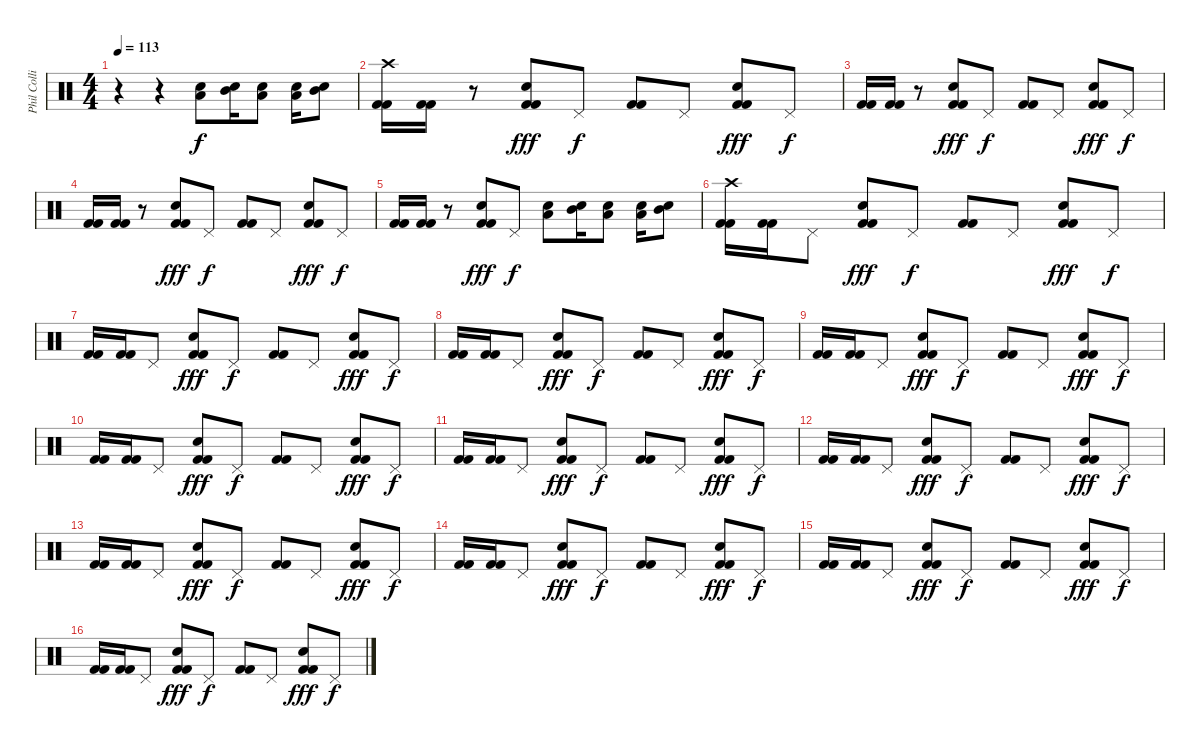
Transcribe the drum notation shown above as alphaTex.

\track ("Phil Collins" "Phil Colli") {instrument percussion}
\staff {score}
\articulation defaults
\ts (4 4)
\tempo 113
\clef neutral
\ks c
r.4{dy f} r.4 ("Electric Snare (hit)" "Low Tom (hit)").8 ("Electric Snare (hit)" "Mid Tom (hit)").16 ("Electric Snare (hit)" "Low Tom (hit)").8 ("Electric Snare (hit)" "Low Tom (hit)").16 ("Electric Snare (hit)" "Mid Tom (hit)").8 |
("Crash high (hit)" "Kick (hit) 2" "Kick (hit) 2").16 ("Kick (hit) 2" "Kick (hit) 2").16 r.8 ("Electric Snare (hit)" "Kick (hit) 2" "Kick (hit) 2").8{dy fff} "Pedal Hi-Hat (hit)".8{dy f} ("Kick (hit) 2" "Kick (hit) 2").8 "Pedal Hi-Hat (hit)".8 ("Electric Snare (hit)" "Kick (hit) 2" "Kick (hit) 2").8{dy fff} "Pedal Hi-Hat (hit)".8{dy f} |
("Kick (hit) 2" "Kick (hit) 2").16 ("Kick (hit) 2" "Kick (hit) 2").16 r.8 ("Electric Snare (hit)" "Kick (hit) 2" "Kick (hit) 2").8{dy fff} "Pedal Hi-Hat (hit)".8{dy f} ("Kick (hit) 2" "Kick (hit) 2").8 "Pedal Hi-Hat (hit)".8 ("Electric Snare (hit)" "Kick (hit) 2" "Kick (hit) 2").8{dy fff} "Pedal Hi-Hat (hit)".8{dy f} |
("Kick (hit) 2" "Kick (hit) 2").16 ("Kick (hit) 2" "Kick (hit) 2").16 r.8 ("Electric Snare (hit)" "Kick (hit) 2" "Kick (hit) 2").8{dy fff} "Pedal Hi-Hat (hit)".8{dy f} ("Kick (hit) 2" "Kick (hit) 2").8 "Pedal Hi-Hat (hit)".8 ("Electric Snare (hit)" "Kick (hit) 2" "Kick (hit) 2").8{dy fff} "Pedal Hi-Hat (hit)".8{dy f} |
("Kick (hit) 2" "Kick (hit) 2").16 ("Kick (hit) 2" "Kick (hit) 2").16 r.8 ("Electric Snare (hit)" "Kick (hit) 2" "Kick (hit) 2").8{dy fff} "Pedal Hi-Hat (hit)".8{dy f} ("Electric Snare (hit)" "Low Tom (hit)").8 ("Electric Snare (hit)" "Mid Tom (hit)").16 ("Electric Snare (hit)" "Low Tom (hit)").8 ("Electric Snare (hit)" "Low Tom (hit)").16 ("Electric Snare (hit)" "Mid Tom (hit)").8 |
("Crash high (hit)" "Kick (hit) 2" "Kick (hit) 2").16 ("Kick (hit) 2" "Kick (hit) 2").16 "Pedal Hi-Hat (hit)".8 ("Electric Snare (hit)" "Kick (hit) 2" "Kick (hit) 2").8{dy fff} "Pedal Hi-Hat (hit)".8{dy f} ("Kick (hit) 2" "Kick (hit) 2").8 "Pedal Hi-Hat (hit)".8 ("Electric Snare (hit)" "Kick (hit) 2" "Kick (hit) 2").8{dy fff} "Pedal Hi-Hat (hit)".8{dy f} |
("Kick (hit) 2" "Kick (hit) 2").16 ("Kick (hit) 2" "Kick (hit) 2").16 "Pedal Hi-Hat (hit)".8 ("Electric Snare (hit)" "Kick (hit) 2" "Kick (hit) 2").8{dy fff} "Pedal Hi-Hat (hit)".8{dy f} ("Kick (hit) 2" "Kick (hit) 2").8 "Pedal Hi-Hat (hit)".8 ("Electric Snare (hit)" "Kick (hit) 2" "Kick (hit) 2").8{dy fff} "Pedal Hi-Hat (hit)".8{dy f} |
("Kick (hit) 2" "Kick (hit) 2").16 ("Kick (hit) 2" "Kick (hit) 2").16 "Pedal Hi-Hat (hit)".8 ("Electric Snare (hit)" "Kick (hit) 2" "Kick (hit) 2").8{dy fff} "Pedal Hi-Hat (hit)".8{dy f} ("Kick (hit) 2" "Kick (hit) 2").8 "Pedal Hi-Hat (hit)".8 ("Electric Snare (hit)" "Kick (hit) 2" "Kick (hit) 2").8{dy fff} "Pedal Hi-Hat (hit)".8{dy f} |
("Kick (hit) 2" "Kick (hit) 2").16 ("Kick (hit) 2" "Kick (hit) 2").16 "Pedal Hi-Hat (hit)".8 ("Electric Snare (hit)" "Kick (hit) 2" "Kick (hit) 2").8{dy fff} "Pedal Hi-Hat (hit)".8{dy f} ("Kick (hit) 2" "Kick (hit) 2").8 "Pedal Hi-Hat (hit)".8 ("Electric Snare (hit)" "Kick (hit) 2" "Kick (hit) 2").8{dy fff} "Pedal Hi-Hat (hit)".8{dy f} |
("Kick (hit) 2" "Kick (hit) 2").16 ("Kick (hit) 2" "Kick (hit) 2").16 "Pedal Hi-Hat (hit)".8 ("Electric Snare (hit)" "Kick (hit) 2" "Kick (hit) 2").8{dy fff} "Pedal Hi-Hat (hit)".8{dy f} ("Kick (hit) 2" "Kick (hit) 2").8 "Pedal Hi-Hat (hit)".8 ("Electric Snare (hit)" "Kick (hit) 2" "Kick (hit) 2").8{dy fff} "Pedal Hi-Hat (hit)".8{dy f} |
("Kick (hit) 2" "Kick (hit) 2").16 ("Kick (hit) 2" "Kick (hit) 2").16 "Pedal Hi-Hat (hit)".8 ("Electric Snare (hit)" "Kick (hit) 2" "Kick (hit) 2").8{dy fff} "Pedal Hi-Hat (hit)".8{dy f} ("Kick (hit) 2" "Kick (hit) 2").8 "Pedal Hi-Hat (hit)".8 ("Electric Snare (hit)" "Kick (hit) 2" "Kick (hit) 2").8{dy fff} "Pedal Hi-Hat (hit)".8{dy f} |
("Kick (hit) 2" "Kick (hit) 2").16 ("Kick (hit) 2" "Kick (hit) 2").16 "Pedal Hi-Hat (hit)".8 ("Electric Snare (hit)" "Kick (hit) 2" "Kick (hit) 2").8{dy fff} "Pedal Hi-Hat (hit)".8{dy f} ("Kick (hit) 2" "Kick (hit) 2").8 "Pedal Hi-Hat (hit)".8 ("Electric Snare (hit)" "Kick (hit) 2" "Kick (hit) 2").8{dy fff} "Pedal Hi-Hat (hit)".8{dy f} |
("Kick (hit) 2" "Kick (hit) 2").16 ("Kick (hit) 2" "Kick (hit) 2").16 "Pedal Hi-Hat (hit)".8 ("Electric Snare (hit)" "Kick (hit) 2" "Kick (hit) 2").8{dy fff} "Pedal Hi-Hat (hit)".8{dy f} ("Kick (hit) 2" "Kick (hit) 2").8 "Pedal Hi-Hat (hit)".8 ("Electric Snare (hit)" "Kick (hit) 2" "Kick (hit) 2").8{dy fff} "Pedal Hi-Hat (hit)".8{dy f} |
("Kick (hit) 2" "Kick (hit) 2").16 ("Kick (hit) 2" "Kick (hit) 2").16 "Pedal Hi-Hat (hit)".8 ("Electric Snare (hit)" "Kick (hit) 2" "Kick (hit) 2").8{dy fff} "Pedal Hi-Hat (hit)".8{dy f} ("Kick (hit) 2" "Kick (hit) 2").8 "Pedal Hi-Hat (hit)".8 ("Electric Snare (hit)" "Kick (hit) 2" "Kick (hit) 2").8{dy fff} "Pedal Hi-Hat (hit)".8{dy f} |
("Kick (hit) 2" "Kick (hit) 2").16 ("Kick (hit) 2" "Kick (hit) 2").16 "Pedal Hi-Hat (hit)".8 ("Electric Snare (hit)" "Kick (hit) 2" "Kick (hit) 2").8{dy fff} "Pedal Hi-Hat (hit)".8{dy f} ("Kick (hit) 2" "Kick (hit) 2").8 "Pedal Hi-Hat (hit)".8 ("Electric Snare (hit)" "Kick (hit) 2" "Kick (hit) 2").8{dy fff} "Pedal Hi-Hat (hit)".8{dy f} |
("Kick (hit) 2" "Kick (hit) 2").16 ("Kick (hit) 2" "Kick (hit) 2").16 "Pedal Hi-Hat (hit)".8 ("Electric Snare (hit)" "Kick (hit) 2" "Kick (hit) 2").8{dy fff} "Pedal Hi-Hat (hit)".8{dy f} ("Kick (hit) 2" "Kick (hit) 2").8 "Pedal Hi-Hat (hit)".8 ("Electric Snare (hit)" "Kick (hit) 2" "Kick (hit) 2").8{dy fff} "Pedal Hi-Hat (hit)".8{dy f}
